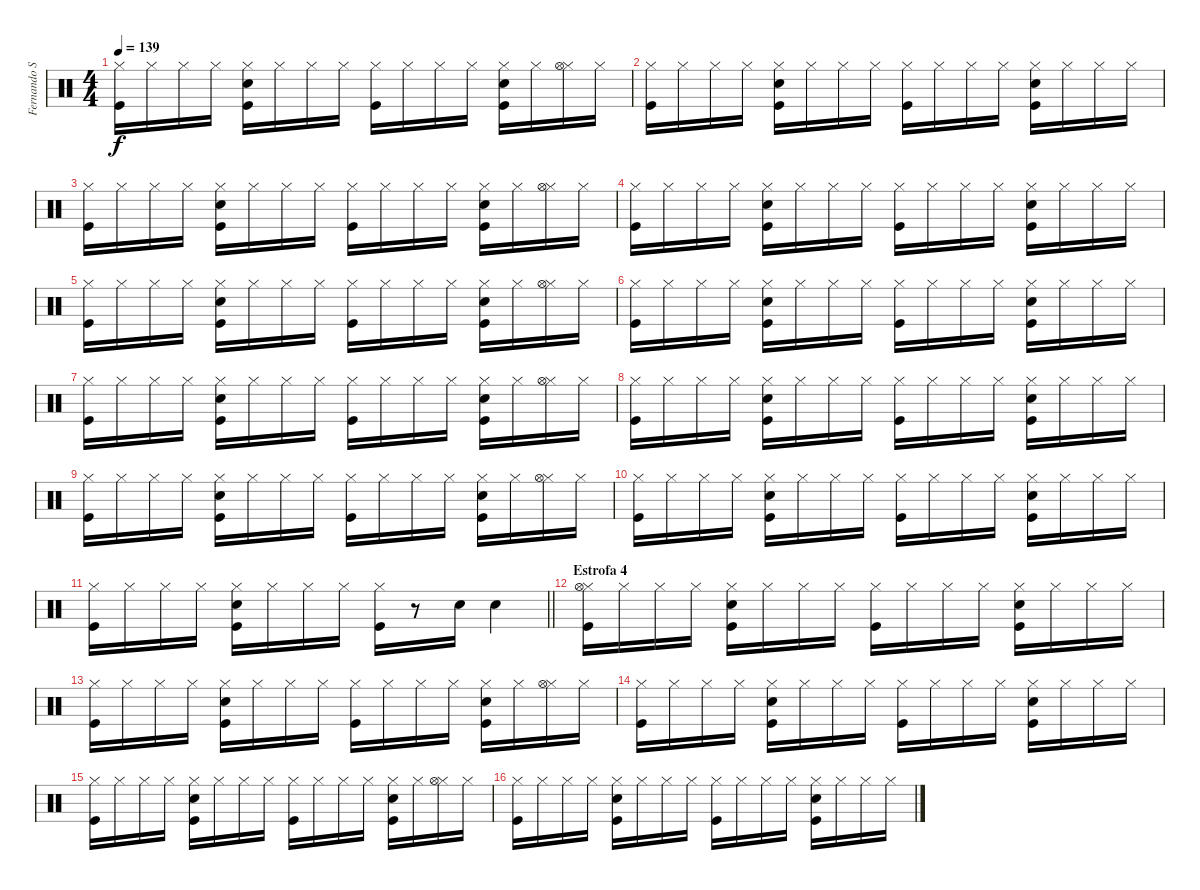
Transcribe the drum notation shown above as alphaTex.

\track ("Fernando Samalea (Bateria)" "Fernando S") {instrument percussion}
\staff {score}
\articulation defaults
\ts (4 4)
\tempo 139
\clef neutral
\ks c
("Kick (hit)" "Hi-Hat (closed)").16{dy f} "Hi-Hat (closed)".16 "Hi-Hat (closed)".16 "Hi-Hat (closed)".16 ("Kick (hit)" "Snare (hit) 2" "Hi-Hat (closed)").16 "Hi-Hat (closed)".16 "Hi-Hat (closed)".16 "Hi-Hat (closed)".16 ("Kick (hit)" "Hi-Hat (closed)").16 "Hi-Hat (closed)".16 "Hi-Hat (closed)".16 "Hi-Hat (closed)".16 ("Kick (hit)" "Snare (hit) 2" "Hi-Hat (closed)").16 "Hi-Hat (closed)".16 ("Hi-Hat (closed)" "Hi-Hat (open)").16 "Hi-Hat (closed)".16 |
("Kick (hit)" "Hi-Hat (closed)").16 "Hi-Hat (closed)".16 "Hi-Hat (closed)".16 "Hi-Hat (closed)".16 ("Kick (hit)" "Snare (hit) 2" "Hi-Hat (closed)").16 "Hi-Hat (closed)".16 "Hi-Hat (closed)".16 "Hi-Hat (closed)".16 ("Kick (hit)" "Hi-Hat (closed)").16 "Hi-Hat (closed)".16 "Hi-Hat (closed)".16 "Hi-Hat (closed)".16 ("Kick (hit)" "Snare (hit) 2" "Hi-Hat (closed)").16 "Hi-Hat (closed)".16 "Hi-Hat (closed)".16 "Hi-Hat (closed)".16 |
("Kick (hit)" "Hi-Hat (closed)").16 "Hi-Hat (closed)".16 "Hi-Hat (closed)".16 "Hi-Hat (closed)".16 ("Kick (hit)" "Snare (hit) 2" "Hi-Hat (closed)").16 "Hi-Hat (closed)".16 "Hi-Hat (closed)".16 "Hi-Hat (closed)".16 ("Kick (hit)" "Hi-Hat (closed)").16 "Hi-Hat (closed)".16 "Hi-Hat (closed)".16 "Hi-Hat (closed)".16 ("Kick (hit)" "Snare (hit) 2" "Hi-Hat (closed)").16 "Hi-Hat (closed)".16 ("Hi-Hat (closed)" "Hi-Hat (open)").16 "Hi-Hat (closed)".16 |
("Kick (hit)" "Hi-Hat (closed)").16 "Hi-Hat (closed)".16 "Hi-Hat (closed)".16 "Hi-Hat (closed)".16 ("Kick (hit)" "Snare (hit) 2" "Hi-Hat (closed)").16 "Hi-Hat (closed)".16 "Hi-Hat (closed)".16 "Hi-Hat (closed)".16 ("Kick (hit)" "Hi-Hat (closed)").16 "Hi-Hat (closed)".16 "Hi-Hat (closed)".16 "Hi-Hat (closed)".16 ("Kick (hit)" "Snare (hit) 2" "Hi-Hat (closed)").16 "Hi-Hat (closed)".16 "Hi-Hat (closed)".16 "Hi-Hat (closed)".16 |
("Kick (hit)" "Hi-Hat (closed)").16 "Hi-Hat (closed)".16 "Hi-Hat (closed)".16 "Hi-Hat (closed)".16 ("Kick (hit)" "Snare (hit) 2" "Hi-Hat (closed)").16 "Hi-Hat (closed)".16 "Hi-Hat (closed)".16 "Hi-Hat (closed)".16 ("Kick (hit)" "Hi-Hat (closed)").16 "Hi-Hat (closed)".16 "Hi-Hat (closed)".16 "Hi-Hat (closed)".16 ("Kick (hit)" "Snare (hit) 2" "Hi-Hat (closed)").16 "Hi-Hat (closed)".16 ("Hi-Hat (closed)" "Hi-Hat (open)").16 "Hi-Hat (closed)".16 |
("Kick (hit)" "Hi-Hat (closed)").16 "Hi-Hat (closed)".16 "Hi-Hat (closed)".16 "Hi-Hat (closed)".16 ("Kick (hit)" "Snare (hit) 2" "Hi-Hat (closed)").16 "Hi-Hat (closed)".16 "Hi-Hat (closed)".16 "Hi-Hat (closed)".16 ("Kick (hit)" "Hi-Hat (closed)").16 "Hi-Hat (closed)".16 "Hi-Hat (closed)".16 "Hi-Hat (closed)".16 ("Kick (hit)" "Snare (hit) 2" "Hi-Hat (closed)").16 "Hi-Hat (closed)".16 "Hi-Hat (closed)".16 "Hi-Hat (closed)".16 |
("Kick (hit)" "Hi-Hat (closed)").16 "Hi-Hat (closed)".16 "Hi-Hat (closed)".16 "Hi-Hat (closed)".16 ("Kick (hit)" "Snare (hit) 2" "Hi-Hat (closed)").16 "Hi-Hat (closed)".16 "Hi-Hat (closed)".16 "Hi-Hat (closed)".16 ("Kick (hit)" "Hi-Hat (closed)").16 "Hi-Hat (closed)".16 "Hi-Hat (closed)".16 "Hi-Hat (closed)".16 ("Kick (hit)" "Snare (hit) 2" "Hi-Hat (closed)").16 "Hi-Hat (closed)".16 ("Hi-Hat (closed)" "Hi-Hat (open)").16 "Hi-Hat (closed)".16 |
("Kick (hit)" "Hi-Hat (closed)").16 "Hi-Hat (closed)".16 "Hi-Hat (closed)".16 "Hi-Hat (closed)".16 ("Kick (hit)" "Snare (hit) 2" "Hi-Hat (closed)").16 "Hi-Hat (closed)".16 "Hi-Hat (closed)".16 "Hi-Hat (closed)".16 ("Kick (hit)" "Hi-Hat (closed)").16 "Hi-Hat (closed)".16 "Hi-Hat (closed)".16 "Hi-Hat (closed)".16 ("Kick (hit)" "Snare (hit) 2" "Hi-Hat (closed)").16 "Hi-Hat (closed)".16 "Hi-Hat (closed)".16 "Hi-Hat (closed)".16 |
("Kick (hit)" "Hi-Hat (closed)").16 "Hi-Hat (closed)".16 "Hi-Hat (closed)".16 "Hi-Hat (closed)".16 ("Kick (hit)" "Snare (hit) 2" "Hi-Hat (closed)").16 "Hi-Hat (closed)".16 "Hi-Hat (closed)".16 "Hi-Hat (closed)".16 ("Kick (hit)" "Hi-Hat (closed)").16 "Hi-Hat (closed)".16 "Hi-Hat (closed)".16 "Hi-Hat (closed)".16 ("Kick (hit)" "Snare (hit) 2" "Hi-Hat (closed)").16 "Hi-Hat (closed)".16 ("Hi-Hat (closed)" "Hi-Hat (open)").16 "Hi-Hat (closed)".16 |
("Kick (hit)" "Hi-Hat (closed)").16 "Hi-Hat (closed)".16 "Hi-Hat (closed)".16 "Hi-Hat (closed)".16 ("Kick (hit)" "Snare (hit) 2" "Hi-Hat (closed)").16 "Hi-Hat (closed)".16 "Hi-Hat (closed)".16 "Hi-Hat (closed)".16 ("Kick (hit)" "Hi-Hat (closed)").16 "Hi-Hat (closed)".16 "Hi-Hat (closed)".16 "Hi-Hat (closed)".16 ("Kick (hit)" "Snare (hit) 2" "Hi-Hat (closed)").16 "Hi-Hat (closed)".16 "Hi-Hat (closed)".16 "Hi-Hat (closed)".16 |
\barLineRight lightlight
("Kick (hit)" "Hi-Hat (closed)").16 "Hi-Hat (closed)".16 "Hi-Hat (closed)".16 "Hi-Hat (closed)".16 ("Kick (hit)" "Snare (hit) 2" "Hi-Hat (closed)").16 "Hi-Hat (closed)".16 "Hi-Hat (closed)".16 "Hi-Hat (closed)".16 ("Kick (hit)" "Hi-Hat (closed)").16 r.8 "Snare (hit) 2".16 "Snare (hit) 2".4 |
\section ("" "Estrofa 4")
("Kick (hit)" "Hi-Hat (closed)" "Hi-Hat (open)").16 "Hi-Hat (closed)".16 "Hi-Hat (closed)".16 "Hi-Hat (closed)".16 ("Kick (hit)" "Snare (hit) 2" "Hi-Hat (closed)").16 "Hi-Hat (closed)".16 "Hi-Hat (closed)".16 "Hi-Hat (closed)".16 ("Kick (hit)" "Hi-Hat (closed)").16 "Hi-Hat (closed)".16 "Hi-Hat (closed)".16 "Hi-Hat (closed)".16 ("Kick (hit)" "Snare (hit) 2" "Hi-Hat (closed)").16 "Hi-Hat (closed)".16 "Hi-Hat (closed)".16 "Hi-Hat (closed)".16 |
("Kick (hit)" "Hi-Hat (closed)").16 "Hi-Hat (closed)".16 "Hi-Hat (closed)".16 "Hi-Hat (closed)".16 ("Kick (hit)" "Snare (hit) 2" "Hi-Hat (closed)").16 "Hi-Hat (closed)".16 "Hi-Hat (closed)".16 "Hi-Hat (closed)".16 ("Kick (hit)" "Hi-Hat (closed)").16 "Hi-Hat (closed)".16 "Hi-Hat (closed)".16 "Hi-Hat (closed)".16 ("Kick (hit)" "Snare (hit) 2" "Hi-Hat (closed)").16 "Hi-Hat (closed)".16 ("Hi-Hat (closed)" "Hi-Hat (open)").16 "Hi-Hat (closed)".16 |
("Kick (hit)" "Hi-Hat (closed)").16 "Hi-Hat (closed)".16 "Hi-Hat (closed)".16 "Hi-Hat (closed)".16 ("Kick (hit)" "Snare (hit) 2" "Hi-Hat (closed)").16 "Hi-Hat (closed)".16 "Hi-Hat (closed)".16 "Hi-Hat (closed)".16 ("Kick (hit)" "Hi-Hat (closed)").16 "Hi-Hat (closed)".16 "Hi-Hat (closed)".16 "Hi-Hat (closed)".16 ("Kick (hit)" "Snare (hit) 2" "Hi-Hat (closed)").16 "Hi-Hat (closed)".16 "Hi-Hat (closed)".16 "Hi-Hat (closed)".16 |
("Kick (hit)" "Hi-Hat (closed)").16 "Hi-Hat (closed)".16 "Hi-Hat (closed)".16 "Hi-Hat (closed)".16 ("Kick (hit)" "Snare (hit) 2" "Hi-Hat (closed)").16 "Hi-Hat (closed)".16 "Hi-Hat (closed)".16 "Hi-Hat (closed)".16 ("Kick (hit)" "Hi-Hat (closed)").16 "Hi-Hat (closed)".16 "Hi-Hat (closed)".16 "Hi-Hat (closed)".16 ("Kick (hit)" "Snare (hit) 2" "Hi-Hat (closed)").16 "Hi-Hat (closed)".16 ("Hi-Hat (closed)" "Hi-Hat (open)").16 "Hi-Hat (closed)".16 |
("Kick (hit)" "Hi-Hat (closed)").16 "Hi-Hat (closed)".16 "Hi-Hat (closed)".16 "Hi-Hat (closed)".16 ("Kick (hit)" "Snare (hit) 2" "Hi-Hat (closed)").16 "Hi-Hat (closed)".16 "Hi-Hat (closed)".16 "Hi-Hat (closed)".16 ("Kick (hit)" "Hi-Hat (closed)").16 "Hi-Hat (closed)".16 "Hi-Hat (closed)".16 "Hi-Hat (closed)".16 ("Kick (hit)" "Snare (hit) 2" "Hi-Hat (closed)").16 "Hi-Hat (closed)".16 "Hi-Hat (closed)".16 "Hi-Hat (closed)".16
